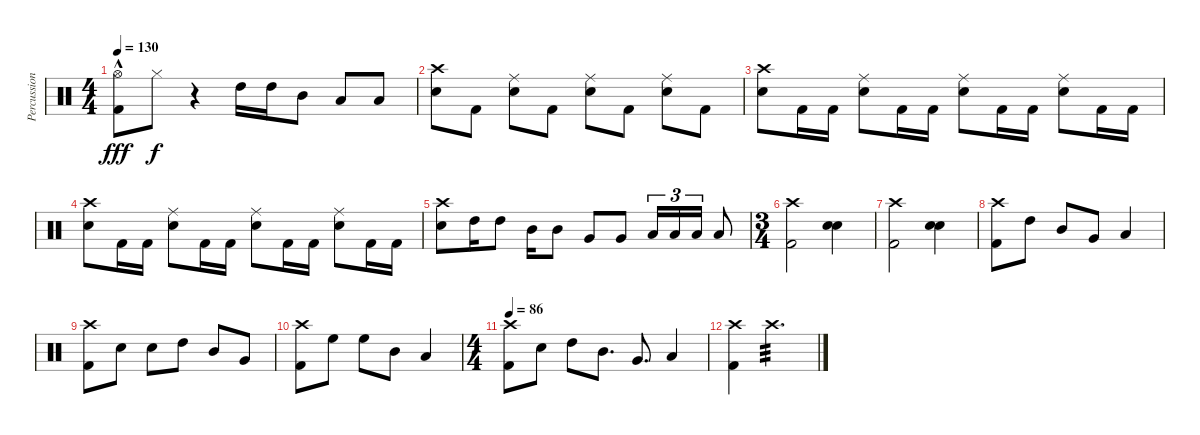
\track ("Percussion" "Percussion") {instrument percussion}
\staff {score}
\articulation defaults
\ts (4 4)
\tempo 130
\clef neutral
\ks c
("Hi-Hat (open)"{hac} "Kick (hit) 2").8{dy fff} "Hi-Hat (closed)".8{dy f} r.4 "High Tom (hit)".16 "High Tom (hit)".16 "Mid Tom (hit)".8 "Low Floor Tom (hit)".8 "Low Floor Tom (hit)".8 |
("Crash high (hit)" "Snare (hit) 2").8 "Kick (hit) 2".8 ("Ride (middle)" "Snare (hit) 2").8 "Kick (hit) 2".8 ("Ride (middle)" "Snare (hit) 2").8 "Kick (hit) 2".8 ("Ride (middle)" "Snare (hit) 2").8 "Kick (hit) 2".8 |
("Crash high (hit)" "Snare (hit) 2").8 "Kick (hit) 2".16 "Kick (hit) 2".16 ("Ride (middle)" "Snare (hit) 2").8 "Kick (hit) 2".16 "Kick (hit) 2".16 ("Ride (middle)" "Snare (hit) 2").8 "Kick (hit) 2".16 "Kick (hit) 2".16 ("Ride (middle)" "Snare (hit) 2").8 "Kick (hit) 2".16 "Kick (hit) 2".16 |
("Crash high (hit)" "Snare (hit) 2").8 "Kick (hit) 2".16 "Kick (hit) 2".16 ("Ride (middle)" "Snare (hit) 2").8 "Kick (hit) 2".16 "Kick (hit) 2".16 ("Ride (middle)" "Snare (hit) 2").8 "Kick (hit) 2".16 "Kick (hit) 2".16 ("Ride (middle)" "Snare (hit) 2").8 "Kick (hit) 2".16 "Kick (hit) 2".16 |
("Crash high (hit)" "Snare (hit) 2").8 "High Tom (hit)".16 "High Tom (hit)".8 "Mid Tom (hit)".16 "Mid Tom (hit)".8 "Very Low Tom (hit)".8 "Very Low Tom (hit)".8 "Low Floor Tom (hit)".16{tu (3 2)} "Low Floor Tom (hit)".16{tu (3 2)} "Low Floor Tom (hit)".16{tu (3 2)} "Low Floor Tom (hit)".8 |
\ts (3 4)
("Crash high (hit)" "Kick (hit) 2").2 ("Snare (hit) 2" "Electric Snare (hit)").4 |
("Crash high (hit)" "Kick (hit) 2").2 ("Snare (hit) 2" "Electric Snare (hit)").4 |
("Crash high (hit)" "Kick (hit) 2").8 "High Tom (hit)".8 "Mid Tom (hit)".8 "Very Low Tom (hit)".8 "Low Floor Tom (hit)".4 |
("Crash high (hit)" "Kick (hit) 2").8 "Electric Snare (hit)".8 "Electric Snare (hit)".8 "High Tom (hit)".8 "Mid Tom (hit)".8 "Very Low Tom (hit)".8 |
("Crash high (hit)" "Kick (hit) 2").8 "High Floor Tom (hit)".8 "High Floor Tom (hit)".8 "Mid Tom (hit)".8 "Low Floor Tom (hit)".4 |
\ts (4 4)
\tempo 86
("Crash high (hit)" "Kick (hit) 2").8 "Electric Snare (hit)".8 "High Tom (hit)".8 "Mid Tom (hit)".8{d} "Very Low Tom (hit)".8{d} "Low Floor Tom (hit)".4 |
("Crash high (hit)" "Kick (hit) 2").4 "Crash high (hit)".2{d tp 3}
